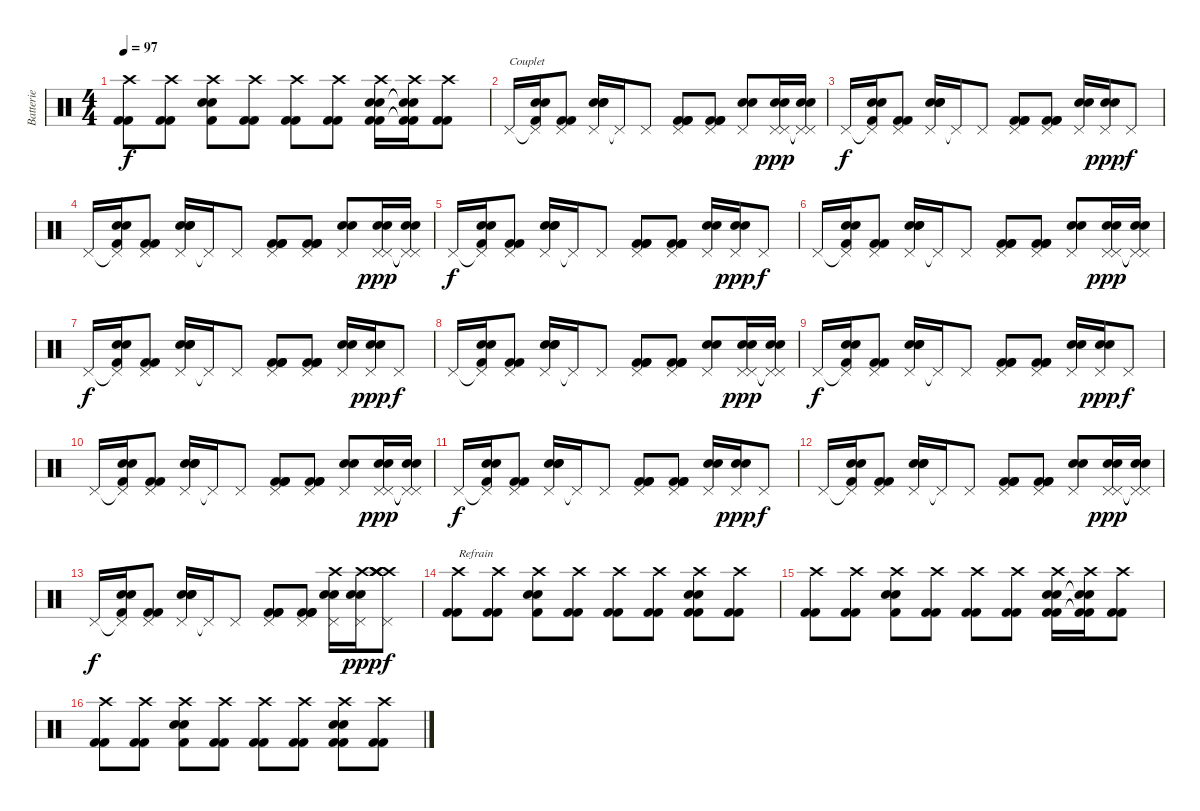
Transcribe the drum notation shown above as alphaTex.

\track ("Batterie" "Batterie") {instrument percussion}
\staff {score}
\articulation defaults
\ts (4 4)
\tempo 97
\clef neutral
\ks c
("Crash high (hit)" "Kick (hit) 2" "Kick (hit) 2").8{dy f} ("Crash high (hit)" "Kick (hit) 2" "Kick (hit) 2").8 ("Crash high (hit)" "Snare (hit) 2" "Snare (hit) 2" "Kick (hit) 2").8 ("Crash high (hit)" "Kick (hit) 2" "Kick (hit) 2").8 ("Crash high (hit)" "Kick (hit) 2" "Kick (hit) 2").8 ("Crash high (hit)" "Kick (hit) 2" "Kick (hit) 2").8 ("Crash high (hit)" "Snare (hit) 2" "Snare (hit) 2" "Kick (hit) 2" "Kick (hit) 2").16 ("Crash high (hit)" "Snare (hit) 2"{t} "Snare (hit) 2"{t} "Kick (hit) 2"{t} "Kick (hit) 2"{t}).16 ("Crash high (hit)" "Kick (hit) 2" "Kick (hit) 2").8 |
"Pedal Hi-Hat (hit)".16{txt "Couplet"} ("Pedal Hi-Hat (hit)"{t} "Snare (hit) 2" "Snare (hit) 2" "Kick (hit) 2").16 ("Pedal Hi-Hat (hit)" "Kick (hit) 2" "Kick (hit) 2").8 ("Pedal Hi-Hat (hit)" "Snare (hit) 2" "Snare (hit) 2" "Snare (hit) 2").16 "Pedal Hi-Hat (hit)"{t}.16 "Pedal Hi-Hat (hit)".8 ("Pedal Hi-Hat (hit)" "Kick (hit) 2" "Kick (hit) 2" "Kick (hit) 2").8 ("Pedal Hi-Hat (hit)" "Kick (hit) 2" "Kick (hit) 2" "Kick (hit) 2").8 ("Pedal Hi-Hat (hit)" "Snare (hit) 2" "Snare (hit) 2").8 ("Pedal Hi-Hat (hit)" "Pedal Hi-Hat (hit)" "Snare (hit) 2" "Snare (hit) 2").16{dy ppp} ("Pedal Hi-Hat (hit)"{t} "Pedal Hi-Hat (hit)"{t} "Snare (hit) 2" "Snare (hit) 2").16 |
"Pedal Hi-Hat (hit)".16{dy f} ("Pedal Hi-Hat (hit)"{t} "Snare (hit) 2" "Snare (hit) 2" "Kick (hit) 2").16 ("Pedal Hi-Hat (hit)" "Kick (hit) 2" "Kick (hit) 2").8 ("Pedal Hi-Hat (hit)" "Snare (hit) 2" "Snare (hit) 2" "Snare (hit) 2").16 "Pedal Hi-Hat (hit)"{t}.16 "Pedal Hi-Hat (hit)".8 ("Pedal Hi-Hat (hit)" "Kick (hit) 2" "Kick (hit) 2" "Kick (hit) 2").8 ("Pedal Hi-Hat (hit)" "Kick (hit) 2" "Kick (hit) 2" "Kick (hit) 2").8 ("Pedal Hi-Hat (hit)" "Snare (hit) 2" "Snare (hit) 2").16 ("Pedal Hi-Hat (hit)" "Snare (hit) 2" "Snare (hit) 2").16{dy ppp} "Pedal Hi-Hat (hit)".8{dy f} |
"Pedal Hi-Hat (hit)".16 ("Pedal Hi-Hat (hit)"{t} "Snare (hit) 2" "Snare (hit) 2" "Kick (hit) 2").16 ("Pedal Hi-Hat (hit)" "Kick (hit) 2" "Kick (hit) 2").8 ("Pedal Hi-Hat (hit)" "Snare (hit) 2" "Snare (hit) 2" "Snare (hit) 2").16 "Pedal Hi-Hat (hit)"{t}.16 "Pedal Hi-Hat (hit)".8 ("Pedal Hi-Hat (hit)" "Kick (hit) 2" "Kick (hit) 2" "Kick (hit) 2").8 ("Pedal Hi-Hat (hit)" "Kick (hit) 2" "Kick (hit) 2" "Kick (hit) 2").8 ("Pedal Hi-Hat (hit)" "Snare (hit) 2" "Snare (hit) 2").8 ("Pedal Hi-Hat (hit)" "Pedal Hi-Hat (hit)" "Snare (hit) 2" "Snare (hit) 2").16{dy ppp} ("Pedal Hi-Hat (hit)"{t} "Pedal Hi-Hat (hit)"{t} "Snare (hit) 2" "Snare (hit) 2").16 |
"Pedal Hi-Hat (hit)".16{dy f} ("Pedal Hi-Hat (hit)"{t} "Snare (hit) 2" "Snare (hit) 2" "Kick (hit) 2").16 ("Pedal Hi-Hat (hit)" "Kick (hit) 2" "Kick (hit) 2").8 ("Pedal Hi-Hat (hit)" "Snare (hit) 2" "Snare (hit) 2" "Snare (hit) 2").16 "Pedal Hi-Hat (hit)"{t}.16 "Pedal Hi-Hat (hit)".8 ("Pedal Hi-Hat (hit)" "Kick (hit) 2" "Kick (hit) 2" "Kick (hit) 2").8 ("Pedal Hi-Hat (hit)" "Kick (hit) 2" "Kick (hit) 2" "Kick (hit) 2").8 ("Pedal Hi-Hat (hit)" "Snare (hit) 2" "Snare (hit) 2").16 ("Pedal Hi-Hat (hit)" "Snare (hit) 2" "Snare (hit) 2").16{dy ppp} "Pedal Hi-Hat (hit)".8{dy f} |
"Pedal Hi-Hat (hit)".16 ("Pedal Hi-Hat (hit)"{t} "Snare (hit) 2" "Snare (hit) 2" "Kick (hit) 2").16 ("Pedal Hi-Hat (hit)" "Kick (hit) 2" "Kick (hit) 2").8 ("Pedal Hi-Hat (hit)" "Snare (hit) 2" "Snare (hit) 2" "Snare (hit) 2").16 "Pedal Hi-Hat (hit)"{t}.16 "Pedal Hi-Hat (hit)".8 ("Pedal Hi-Hat (hit)" "Kick (hit) 2" "Kick (hit) 2" "Kick (hit) 2").8 ("Pedal Hi-Hat (hit)" "Kick (hit) 2" "Kick (hit) 2" "Kick (hit) 2").8 ("Pedal Hi-Hat (hit)" "Snare (hit) 2" "Snare (hit) 2").8 ("Pedal Hi-Hat (hit)" "Pedal Hi-Hat (hit)" "Snare (hit) 2" "Snare (hit) 2").16{dy ppp} ("Pedal Hi-Hat (hit)"{t} "Pedal Hi-Hat (hit)"{t} "Snare (hit) 2" "Snare (hit) 2").16 |
"Pedal Hi-Hat (hit)".16{dy f} ("Pedal Hi-Hat (hit)"{t} "Snare (hit) 2" "Snare (hit) 2" "Kick (hit) 2").16 ("Pedal Hi-Hat (hit)" "Kick (hit) 2" "Kick (hit) 2").8 ("Pedal Hi-Hat (hit)" "Snare (hit) 2" "Snare (hit) 2" "Snare (hit) 2").16 "Pedal Hi-Hat (hit)"{t}.16 "Pedal Hi-Hat (hit)".8 ("Pedal Hi-Hat (hit)" "Kick (hit) 2" "Kick (hit) 2" "Kick (hit) 2").8 ("Pedal Hi-Hat (hit)" "Kick (hit) 2" "Kick (hit) 2" "Kick (hit) 2").8 ("Pedal Hi-Hat (hit)" "Snare (hit) 2" "Snare (hit) 2").16 ("Pedal Hi-Hat (hit)" "Snare (hit) 2" "Snare (hit) 2").16{dy ppp} "Pedal Hi-Hat (hit)".8{dy f} |
"Pedal Hi-Hat (hit)".16 ("Pedal Hi-Hat (hit)"{t} "Snare (hit) 2" "Snare (hit) 2" "Kick (hit) 2").16 ("Pedal Hi-Hat (hit)" "Kick (hit) 2" "Kick (hit) 2").8 ("Pedal Hi-Hat (hit)" "Snare (hit) 2" "Snare (hit) 2" "Snare (hit) 2").16 "Pedal Hi-Hat (hit)"{t}.16 "Pedal Hi-Hat (hit)".8 ("Pedal Hi-Hat (hit)" "Kick (hit) 2" "Kick (hit) 2" "Kick (hit) 2").8 ("Pedal Hi-Hat (hit)" "Kick (hit) 2" "Kick (hit) 2" "Kick (hit) 2").8 ("Pedal Hi-Hat (hit)" "Snare (hit) 2" "Snare (hit) 2").8 ("Pedal Hi-Hat (hit)" "Pedal Hi-Hat (hit)" "Snare (hit) 2" "Snare (hit) 2").16{dy ppp} ("Pedal Hi-Hat (hit)"{t} "Pedal Hi-Hat (hit)"{t} "Snare (hit) 2" "Snare (hit) 2").16 |
"Pedal Hi-Hat (hit)".16{dy f} ("Pedal Hi-Hat (hit)"{t} "Snare (hit) 2" "Snare (hit) 2" "Kick (hit) 2").16 ("Pedal Hi-Hat (hit)" "Kick (hit) 2" "Kick (hit) 2").8 ("Pedal Hi-Hat (hit)" "Snare (hit) 2" "Snare (hit) 2" "Snare (hit) 2").16 "Pedal Hi-Hat (hit)"{t}.16 "Pedal Hi-Hat (hit)".8 ("Pedal Hi-Hat (hit)" "Kick (hit) 2" "Kick (hit) 2" "Kick (hit) 2").8 ("Pedal Hi-Hat (hit)" "Kick (hit) 2" "Kick (hit) 2" "Kick (hit) 2").8 ("Pedal Hi-Hat (hit)" "Snare (hit) 2" "Snare (hit) 2").16 ("Pedal Hi-Hat (hit)" "Snare (hit) 2" "Snare (hit) 2").16{dy ppp} "Pedal Hi-Hat (hit)".8{dy f} |
"Pedal Hi-Hat (hit)".16 ("Pedal Hi-Hat (hit)"{t} "Snare (hit) 2" "Snare (hit) 2" "Kick (hit) 2").16 ("Pedal Hi-Hat (hit)" "Kick (hit) 2" "Kick (hit) 2").8 ("Pedal Hi-Hat (hit)" "Snare (hit) 2" "Snare (hit) 2" "Snare (hit) 2").16 "Pedal Hi-Hat (hit)"{t}.16 "Pedal Hi-Hat (hit)".8 ("Pedal Hi-Hat (hit)" "Kick (hit) 2" "Kick (hit) 2" "Kick (hit) 2").8 ("Pedal Hi-Hat (hit)" "Kick (hit) 2" "Kick (hit) 2" "Kick (hit) 2").8 ("Pedal Hi-Hat (hit)" "Snare (hit) 2" "Snare (hit) 2").8 ("Pedal Hi-Hat (hit)" "Pedal Hi-Hat (hit)" "Snare (hit) 2" "Snare (hit) 2").16{dy ppp} ("Pedal Hi-Hat (hit)"{t} "Pedal Hi-Hat (hit)"{t} "Snare (hit) 2" "Snare (hit) 2").16 |
"Pedal Hi-Hat (hit)".16{dy f} ("Pedal Hi-Hat (hit)"{t} "Snare (hit) 2" "Snare (hit) 2" "Kick (hit) 2").16 ("Pedal Hi-Hat (hit)" "Kick (hit) 2" "Kick (hit) 2").8 ("Pedal Hi-Hat (hit)" "Snare (hit) 2" "Snare (hit) 2" "Snare (hit) 2").16 "Pedal Hi-Hat (hit)"{t}.16 "Pedal Hi-Hat (hit)".8 ("Pedal Hi-Hat (hit)" "Kick (hit) 2" "Kick (hit) 2" "Kick (hit) 2").8 ("Pedal Hi-Hat (hit)" "Kick (hit) 2" "Kick (hit) 2" "Kick (hit) 2").8 ("Pedal Hi-Hat (hit)" "Snare (hit) 2" "Snare (hit) 2").16 ("Pedal Hi-Hat (hit)" "Snare (hit) 2" "Snare (hit) 2").16{dy ppp} "Pedal Hi-Hat (hit)".8{dy f} |
"Pedal Hi-Hat (hit)".16 ("Pedal Hi-Hat (hit)"{t} "Snare (hit) 2" "Snare (hit) 2" "Kick (hit) 2").16 ("Pedal Hi-Hat (hit)" "Kick (hit) 2" "Kick (hit) 2").8 ("Pedal Hi-Hat (hit)" "Snare (hit) 2" "Snare (hit) 2" "Snare (hit) 2").16 "Pedal Hi-Hat (hit)"{t}.16 "Pedal Hi-Hat (hit)".8 ("Pedal Hi-Hat (hit)" "Kick (hit) 2" "Kick (hit) 2" "Kick (hit) 2").8 ("Pedal Hi-Hat (hit)" "Kick (hit) 2" "Kick (hit) 2" "Kick (hit) 2").8 ("Pedal Hi-Hat (hit)" "Snare (hit) 2" "Snare (hit) 2").8 ("Pedal Hi-Hat (hit)" "Pedal Hi-Hat (hit)" "Snare (hit) 2" "Snare (hit) 2").16{dy ppp} ("Pedal Hi-Hat (hit)"{t} "Pedal Hi-Hat (hit)"{t} "Snare (hit) 2" "Snare (hit) 2").16 |
"Pedal Hi-Hat (hit)".16{dy f} ("Pedal Hi-Hat (hit)"{t} "Snare (hit) 2" "Snare (hit) 2" "Kick (hit) 2").16 ("Pedal Hi-Hat (hit)" "Kick (hit) 2" "Kick (hit) 2").8 ("Pedal Hi-Hat (hit)" "Snare (hit) 2" "Snare (hit) 2" "Snare (hit) 2").16 "Pedal Hi-Hat (hit)"{t}.16 "Pedal Hi-Hat (hit)".8 ("Pedal Hi-Hat (hit)" "Kick (hit) 2" "Kick (hit) 2" "Kick (hit) 2").8 ("Pedal Hi-Hat (hit)" "Kick (hit) 2" "Kick (hit) 2" "Kick (hit) 2").8 ("Pedal Hi-Hat (hit)" "Snare (hit) 2" "Snare (hit) 2" "Crash high (hit)").16 ("Pedal Hi-Hat (hit)" "Snare (hit) 2" "Snare (hit) 2" "Crash high (hit)").16{dy ppp} ("Pedal Hi-Hat (hit)" "Crash high (hit)" "Crash high (hit)" "Crash high (hit)" "Crash high (hit)").8{dy f} |
("Crash high (hit)" "Kick (hit) 2" "Kick (hit) 2").8{txt "Refrain"} ("Crash high (hit)" "Kick (hit) 2" "Kick (hit) 2").8 ("Crash high (hit)" "Snare (hit) 2" "Snare (hit) 2" "Kick (hit) 2").8 ("Crash high (hit)" "Kick (hit) 2" "Kick (hit) 2").8 ("Crash high (hit)" "Kick (hit) 2" "Kick (hit) 2").8 ("Crash high (hit)" "Kick (hit) 2" "Kick (hit) 2").8 ("Crash high (hit)" "Snare (hit) 2" "Snare (hit) 2" "Kick (hit) 2" "Kick (hit) 2").8 ("Crash high (hit)" "Kick (hit) 2" "Kick (hit) 2").8 |
("Crash high (hit)" "Kick (hit) 2" "Kick (hit) 2").8 ("Crash high (hit)" "Kick (hit) 2" "Kick (hit) 2").8 ("Crash high (hit)" "Snare (hit) 2" "Snare (hit) 2" "Kick (hit) 2").8 ("Crash high (hit)" "Kick (hit) 2" "Kick (hit) 2").8 ("Crash high (hit)" "Kick (hit) 2" "Kick (hit) 2").8 ("Crash high (hit)" "Kick (hit) 2" "Kick (hit) 2").8 ("Crash high (hit)" "Snare (hit) 2" "Snare (hit) 2" "Kick (hit) 2" "Kick (hit) 2").16 ("Crash high (hit)" "Snare (hit) 2"{t} "Snare (hit) 2"{t} "Kick (hit) 2"{t} "Kick (hit) 2"{t}).16 ("Crash high (hit)" "Kick (hit) 2" "Kick (hit) 2").8 |
("Crash high (hit)" "Kick (hit) 2" "Kick (hit) 2").8 ("Crash high (hit)" "Kick (hit) 2" "Kick (hit) 2").8 ("Crash high (hit)" "Snare (hit) 2" "Snare (hit) 2" "Kick (hit) 2").8 ("Crash high (hit)" "Kick (hit) 2" "Kick (hit) 2").8 ("Crash high (hit)" "Kick (hit) 2" "Kick (hit) 2").8 ("Crash high (hit)" "Kick (hit) 2" "Kick (hit) 2").8 ("Crash high (hit)" "Snare (hit) 2" "Snare (hit) 2" "Kick (hit) 2" "Kick (hit) 2").8 ("Crash high (hit)" "Kick (hit) 2" "Kick (hit) 2").8
